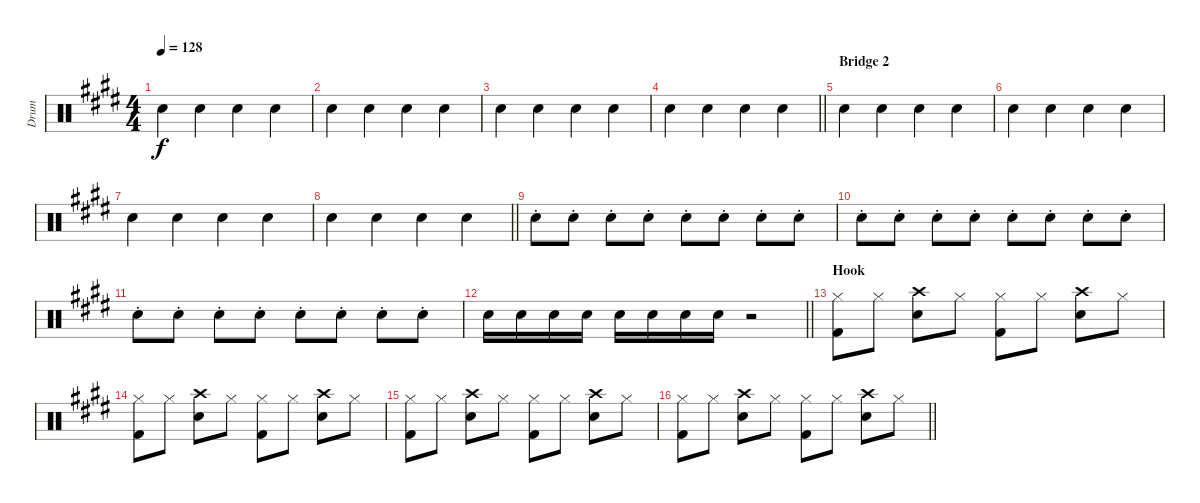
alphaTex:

\track ("Drum" "Drum") {instrument percussion}
\staff {score}
\articulation defaults
\ts (4 4)
\tempo 128
\clef neutral
\ks c#minor "Snare (hit) 2".4{dy f} "Snare (hit) 2".4 "Snare (hit) 2".4 "Snare (hit) 2".4
|
"Snare (hit) 2".4 "Snare (hit) 2".4 "Snare (hit) 2".4 "Snare (hit) 2".4 |
"Snare (hit) 2".4 "Snare (hit) 2".4 "Snare (hit) 2".4 "Snare (hit) 2".4 |
\barLineRight lightlight "Snare (hit) 2".4 "Snare (hit) 2".4 "Snare (hit) 2".4 "Snare (hit) 2".4
|
\section ("" "Bridge 2")
"Snare (hit) 2".4 "Snare (hit) 2".4 "Snare (hit) 2".4 "Snare (hit) 2".4 |
"Snare (hit) 2".4 "Snare (hit) 2".4 "Snare (hit) 2".4 "Snare (hit) 2".4 |
"Snare (hit) 2".4 "Snare (hit) 2".4 "Snare (hit) 2".4 "Snare (hit) 2".4 |
\barLineRight lightlight "Snare (hit) 2".4 "Snare (hit) 2".4 "Snare (hit) 2".4 "Snare (hit) 2".4
|
"Snare (hit) 2"{st}.8 "Snare (hit) 2"{st}.8 "Snare (hit) 2"{st}.8 "Snare (hit) 2"{st}.8 "Snare (hit) 2"{st}.8 "Snare (hit) 2"{st}.8 "Snare (hit) 2"{st}.8 "Snare (hit) 2"{st}.8 |
"Snare (hit) 2"{st}.8 "Snare (hit) 2"{st}.8 "Snare (hit) 2"{st}.8 "Snare (hit) 2"{st}.8 "Snare (hit) 2"{st}.8 "Snare (hit) 2"{st}.8 "Snare (hit) 2"{st}.8 "Snare (hit) 2"{st}.8 |
"Snare (hit) 2"{st}.8 "Snare (hit) 2"{st}.8 "Snare (hit) 2"{st}.8 "Snare (hit) 2"{st}.8 "Snare (hit) 2"{st}.8 "Snare (hit) 2"{st}.8 "Snare (hit) 2"{st}.8 "Snare (hit) 2"{st}.8 |
\barLineRight lightlight "Snare (hit) 2".16 "Snare (hit) 2".16 "Snare (hit) 2".16 "Snare (hit) 2".16 "Snare (hit) 2".16 "Snare (hit) 2".16 "Snare (hit) 2".16 "Snare (hit) 2".16
r.2 |
\section ("" "Hook")
("Hi-Hat (closed)" "Kick (hit) 2").8 "Hi-Hat (closed)".8 ("Crash high (hit)" "Snare (hit) 2").8 "Hi-Hat (closed)".8 ("Hi-Hat (closed)" "Kick (hit) 2").8 "Hi-Hat (closed)".8 ("Crash high (hit)" "Snare (hit) 2").8 "Hi-Hat (closed)".8 |
("Hi-Hat (closed)" "Kick (hit) 2").8 "Hi-Hat (closed)".8 ("Crash high (hit)" "Snare (hit) 2").8 "Hi-Hat (closed)".8 ("Hi-Hat (closed)" "Kick (hit) 2").8 "Hi-Hat (closed)".8 ("Crash high (hit)" "Snare (hit) 2").8 "Hi-Hat (closed)".8 |
("Hi-Hat (closed)" "Kick (hit) 2").8 "Hi-Hat (closed)".8 ("Crash high (hit)" "Snare (hit) 2").8 "Hi-Hat (closed)".8 ("Hi-Hat (closed)" "Kick (hit) 2").8 "Hi-Hat (closed)".8 ("Crash high (hit)" "Snare (hit) 2").8 "Hi-Hat (closed)".8 |
\barLineRight lightlight
("Hi-Hat (closed)" "Kick (hit) 2").8 "Hi-Hat (closed)".8 ("Crash high (hit)" "Snare (hit) 2").8 "Hi-Hat (closed)".8 ("Hi-Hat (closed)" "Kick (hit) 2").8 "Hi-Hat (closed)".8 ("Crash high (hit)" "Snare (hit) 2").8 "Hi-Hat (closed)".8
